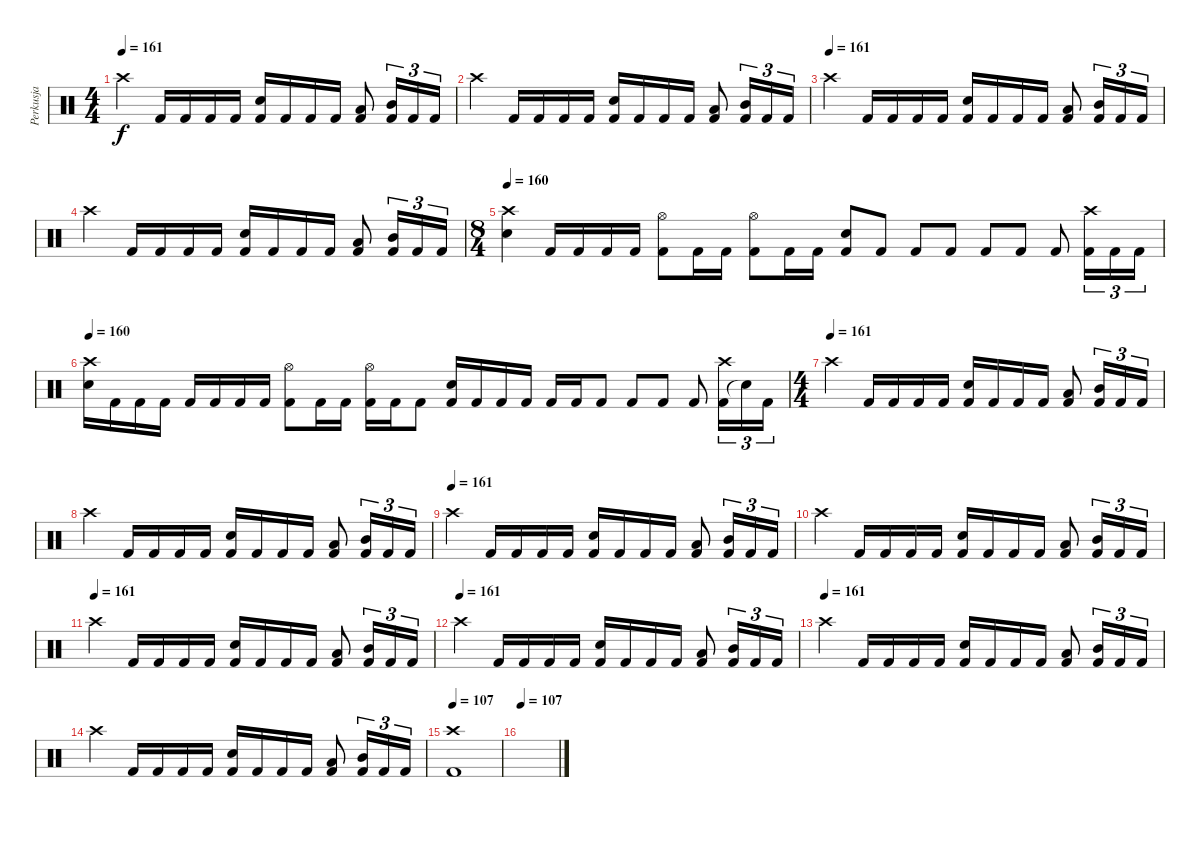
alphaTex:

\track ("Perkusja" "Perkusja") {instrument percussion}
\staff {score}
\articulation defaults
\ts (4 4)
\tempo 161
\clef neutral
\ks c "Crash high (hit)".4{dy f} "Kick (hit) 2".16 "Kick (hit) 2".16 "Kick (hit) 2".16 "Kick (hit) 2".16
("Kick (hit) 2" "Snare (hit) 2").16 "Kick (hit) 2".16 "Kick (hit) 2".16 "Kick (hit) 2".16 ("Kick (hit) 2" "Low Tom (hit)").8 ("Kick (hit) 2" "Mid Tom (hit)").16{tu (3 2)} "Kick (hit) 2".16{tu (3 2)} "Kick (hit) 2".16{tu (3 2)} |
"Crash high (hit)".4 "Kick (hit) 2".16 "Kick (hit) 2".16 "Kick (hit) 2".16 "Kick (hit) 2".16 ("Kick (hit) 2" "Snare (hit) 2").16 "Kick (hit) 2".16 "Kick (hit) 2".16 "Kick (hit) 2".16 ("Kick (hit) 2" "Low Tom (hit)").8 ("Kick (hit) 2" "Mid Tom (hit)").16{tu (3 2)} "Kick (hit) 2".16{tu (3 2)} "Kick (hit) 2".16{tu (3 2)} |
\tempo (161)
"Crash high (hit)".4 "Kick (hit) 2".16 "Kick (hit) 2".16 "Kick (hit) 2".16 "Kick (hit) 2".16 ("Kick (hit) 2" "Snare (hit) 2").16 "Kick (hit) 2".16 "Kick (hit) 2".16 "Kick (hit) 2".16 ("Kick (hit) 2" "Low Tom (hit)").8 ("Kick (hit) 2" "Mid Tom (hit)").16{tu (3 2)} "Kick (hit) 2".16{tu (3 2)} "Kick (hit) 2".16{tu (3 2)} |
"Crash high (hit)".4 "Kick (hit) 2".16 "Kick (hit) 2".16 "Kick (hit) 2".16 "Kick (hit) 2".16 ("Kick (hit) 2" "Snare (hit) 2").16 "Kick (hit) 2".16 "Kick (hit) 2".16 "Kick (hit) 2".16 ("Kick (hit) 2" "Low Tom (hit)").8 ("Kick (hit) 2" "Mid Tom (hit)").16{tu (3 2)} "Kick (hit) 2".16{tu (3 2)} "Kick (hit) 2".16{tu (3 2)} |
\ts (8 4)
\tempo 160
("Crash high (hit)" "Snare (hit) 2").4 "Kick (hit) 2".16 "Kick (hit) 2".16 "Kick (hit) 2".16 "Kick (hit) 2".16 ("Kick (hit) 2" "Hi-Hat (open)").8 "Kick (hit) 2".16 "Kick (hit) 2".16 ("Kick (hit) 2" "Hi-Hat (open)").8 "Kick (hit) 2".16 "Kick (hit) 2".16 ("Kick (hit) 2" "Snare (hit) 2").8 "Kick (hit) 2".8 "Kick (hit) 2".8 "Kick (hit) 2".8 "Kick (hit) 2".8 "Kick (hit) 2".8 "Kick (hit) 2".8 ("Kick (hit) 2" "Crash high (hit)").16{tu (3 2)} "Kick (hit) 2".16{tu (3 2)} "Kick (hit) 2".16{tu (3 2)} |
\tempo 160
("Crash high (hit)" "Snare (hit) 2").16 "Kick (hit) 2".16 "Kick (hit) 2".16 "Kick (hit) 2".16 "Kick (hit) 2".16 "Kick (hit) 2".16 "Kick (hit) 2".16 "Kick (hit) 2".16 ("Kick (hit) 2" "Hi-Hat (open)").8 "Kick (hit) 2".16 "Kick (hit) 2".16 ("Kick (hit) 2" "Hi-Hat (open)").16 "Kick (hit) 2".16 "Kick (hit) 2".8 ("Kick (hit) 2" "Snare (hit) 2").16 "Kick (hit) 2".16 "Kick (hit) 2".16 "Kick (hit) 2".16 "Kick (hit) 2".16 "Kick (hit) 2".16 "Kick (hit) 2".8 "Kick (hit) 2".8 "Kick (hit) 2".8 "Kick (hit) 2".8 ("Kick (hit) 2" "Crash high (hit)").16{tu (3 2)} "Snare (hit)"{t}.16{tu (3 2)} "Kick (hit) 2".16{tu (3 2)} |
\ts (4 4)
\tempo (161)
"Crash high (hit)".4 "Kick (hit) 2".16 "Kick (hit) 2".16 "Kick (hit) 2".16 "Kick (hit) 2".16 ("Kick (hit) 2" "Snare (hit) 2").16 "Kick (hit) 2".16 "Kick (hit) 2".16 "Kick (hit) 2".16 ("Kick (hit) 2" "Low Tom (hit)").8 ("Kick (hit) 2" "Mid Tom (hit)").16{tu (3 2)} "Kick (hit) 2".16{tu (3 2)} "Kick (hit) 2".16{tu (3 2)} |
"Crash high (hit)".4 "Kick (hit) 2".16 "Kick (hit) 2".16 "Kick (hit) 2".16 "Kick (hit) 2".16 ("Kick (hit) 2" "Snare (hit) 2").16 "Kick (hit) 2".16 "Kick (hit) 2".16 "Kick (hit) 2".16 ("Kick (hit) 2" "Low Tom (hit)").8 ("Kick (hit) 2" "Mid Tom (hit)").16{tu (3 2)} "Kick (hit) 2".16{tu (3 2)} "Kick (hit) 2".16{tu (3 2)} |
\tempo (161)
"Crash high (hit)".4 "Kick (hit) 2".16 "Kick (hit) 2".16 "Kick (hit) 2".16 "Kick (hit) 2".16 ("Kick (hit) 2" "Snare (hit) 2").16 "Kick (hit) 2".16 "Kick (hit) 2".16 "Kick (hit) 2".16 ("Kick (hit) 2" "Low Tom (hit)").8 ("Kick (hit) 2" "Mid Tom (hit)").16{tu (3 2)} "Kick (hit) 2".16{tu (3 2)} "Kick (hit) 2".16{tu (3 2)} |
"Crash high (hit)".4 "Kick (hit) 2".16 "Kick (hit) 2".16 "Kick (hit) 2".16 "Kick (hit) 2".16 ("Kick (hit) 2" "Snare (hit) 2").16 "Kick (hit) 2".16 "Kick (hit) 2".16 "Kick (hit) 2".16 ("Kick (hit) 2" "Low Tom (hit)").8 ("Kick (hit) 2" "Mid Tom (hit)").16{tu (3 2)} "Kick (hit) 2".16{tu (3 2)} "Kick (hit) 2".16{tu (3 2)} |
\tempo (161)
"Crash high (hit)".4 "Kick (hit) 2".16 "Kick (hit) 2".16 "Kick (hit) 2".16 "Kick (hit) 2".16 ("Kick (hit) 2" "Snare (hit) 2").16 "Kick (hit) 2".16 "Kick (hit) 2".16 "Kick (hit) 2".16 ("Kick (hit) 2" "Low Tom (hit)").8 ("Kick (hit) 2" "Mid Tom (hit)").16{tu (3 2)} "Kick (hit) 2".16{tu (3 2)} "Kick (hit) 2".16{tu (3 2)} |
\tempo (161)
"Crash high (hit)".4 "Kick (hit) 2".16 "Kick (hit) 2".16 "Kick (hit) 2".16 "Kick (hit) 2".16 ("Kick (hit) 2" "Snare (hit) 2").16 "Kick (hit) 2".16 "Kick (hit) 2".16 "Kick (hit) 2".16 ("Kick (hit) 2" "Low Tom (hit)").8 ("Kick (hit) 2" "Mid Tom (hit)").16{tu (3 2)} "Kick (hit) 2".16{tu (3 2)} "Kick (hit) 2".16{tu (3 2)} |
\tempo (161)
"Crash high (hit)".4 "Kick (hit) 2".16 "Kick (hit) 2".16 "Kick (hit) 2".16 "Kick (hit) 2".16 ("Kick (hit) 2" "Snare (hit) 2").16 "Kick (hit) 2".16 "Kick (hit) 2".16 "Kick (hit) 2".16 ("Kick (hit) 2" "Low Tom (hit)").8 ("Kick (hit) 2" "Mid Tom (hit)").16{tu (3 2)} "Kick (hit) 2".16{tu (3 2)} "Kick (hit) 2".16{tu (3 2)} |
"Crash high (hit)".4 "Kick (hit) 2".16 "Kick (hit) 2".16 "Kick (hit) 2".16 "Kick (hit) 2".16 ("Kick (hit) 2" "Snare (hit) 2").16 "Kick (hit) 2".16 "Kick (hit) 2".16 "Kick (hit) 2".16 ("Kick (hit) 2" "Low Tom (hit)").8 ("Kick (hit) 2" "Mid Tom (hit)").16{tu (3 2)} "Kick (hit) 2".16{tu (3 2)} "Kick (hit) 2".16{tu (3 2)} |
\tempo 107
("Kick (hit) 2" "Crash high (hit)").1 |
\tempo 107
